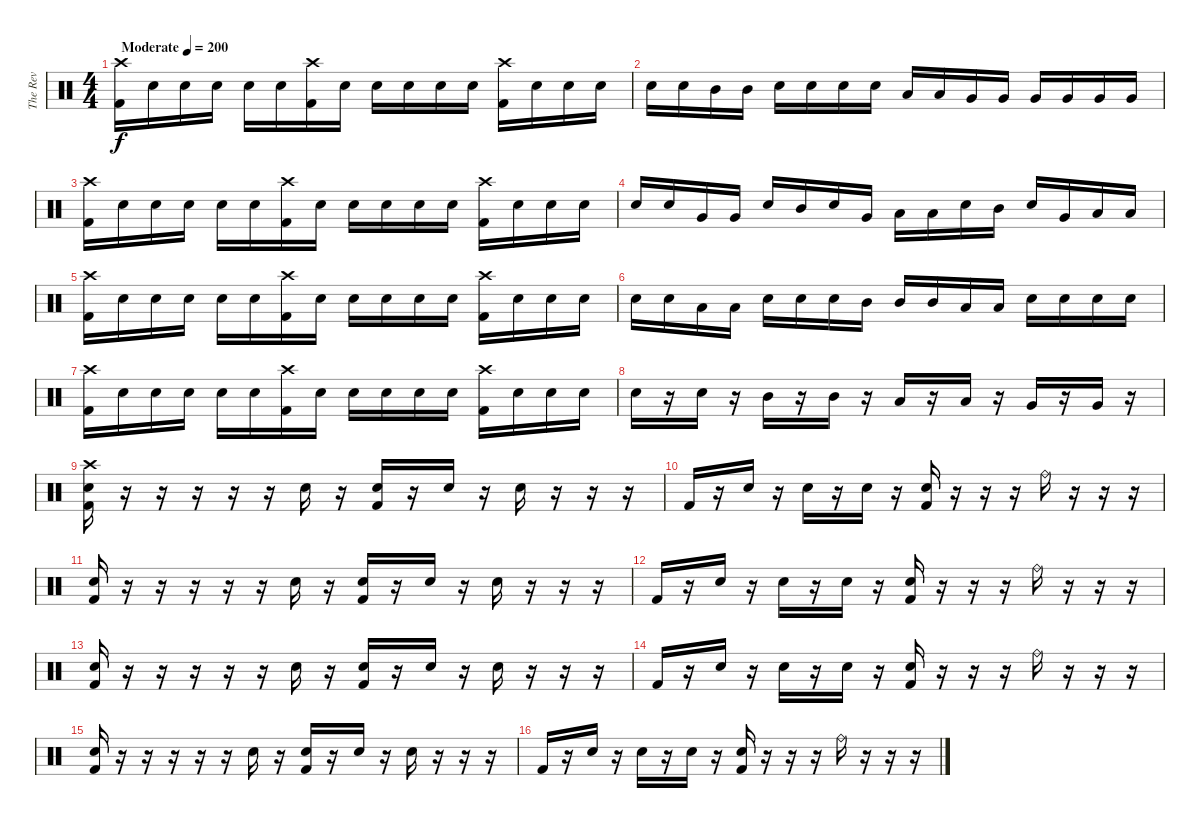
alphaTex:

\track ("The Rev" "The Rev") {instrument percussion}
\staff {score}
\articulation defaults
\ts (4 4)
\tempo (200 "Moderate")
\clef neutral
\ks c
("Crash high (hit)" "Kick (hit) 2").16{dy f} "Electric Snare (hit)".16 "Electric Snare (hit)".16 "Electric Snare (hit)".16 "Electric Snare (hit)".16 "Electric Snare (hit)".16 ("Crash high (hit)" "Kick (hit) 2").16 "Electric Snare (hit)".16 "Electric Snare (hit)".16 "Electric Snare (hit)".16 "Electric Snare (hit)".16 "Electric Snare (hit)".16 ("Crash high (hit)" "Kick (hit) 2").16 "Electric Snare (hit)".16 "Electric Snare (hit)".16 "Electric Snare (hit)".16 |
"Electric Snare (hit)".16 "Electric Snare (hit)".16 "Mid Tom (hit)".16 "Mid Tom (hit)".16 "Electric Snare (hit)".16 "Electric Snare (hit)".16 "Electric Snare (hit)".16 "Electric Snare (hit)".16 "Low Tom (hit)".16 "Low Tom (hit)".16 "Very Low Tom (hit)".16 "Very Low Tom (hit)".16 "Very Low Tom (hit)".16 "Very Low Tom (hit)".16 "Very Low Tom (hit)".16 "Very Low Tom (hit)".16 |
("Crash high (hit)" "Kick (hit) 2").16 "Electric Snare (hit)".16 "Electric Snare (hit)".16 "Electric Snare (hit)".16 "Electric Snare (hit)".16 "Electric Snare (hit)".16 ("Crash high (hit)" "Kick (hit) 2").16 "Electric Snare (hit)".16 "Electric Snare (hit)".16 "Electric Snare (hit)".16 "Electric Snare (hit)".16 "Electric Snare (hit)".16 ("Crash high (hit)" "Kick (hit) 2").16 "Electric Snare (hit)".16 "Electric Snare (hit)".16 "Electric Snare (hit)".16 |
"Electric Snare (hit)".16 "Electric Snare (hit)".16 "Very Low Tom (hit)".16 "Very Low Tom (hit)".16 "Electric Snare (hit)".16 "Mid Tom (hit)".16 "Electric Snare (hit)".16 "Very Low Tom (hit)".16 "Low Tom (hit)".16 "Low Tom (hit)".16 "Electric Snare (hit)".16 "Mid Tom (hit)".16 "Electric Snare (hit)".16 "Very Low Tom (hit)".16 "Low Tom (hit)".16 "Low Tom (hit)".16 |
("Crash high (hit)" "Kick (hit) 2").16 "Electric Snare (hit)".16 "Electric Snare (hit)".16 "Electric Snare (hit)".16 "Electric Snare (hit)".16 "Electric Snare (hit)".16 ("Crash high (hit)" "Kick (hit) 2").16 "Electric Snare (hit)".16 "Electric Snare (hit)".16 "Electric Snare (hit)".16 "Electric Snare (hit)".16 "Electric Snare (hit)".16 ("Crash high (hit)" "Kick (hit) 2").16 "Electric Snare (hit)".16 "Electric Snare (hit)".16 "Electric Snare (hit)".16 |
"Electric Snare (hit)".16 "Electric Snare (hit)".16 "Low Tom (hit)".16 "Low Tom (hit)".16 "Electric Snare (hit)".16 "Electric Snare (hit)".16 "Electric Snare (hit)".16 "Mid Tom (hit)".16 "Mid Tom (hit)".16 "Mid Tom (hit)".16 "Low Tom (hit)".16 "Low Tom (hit)".16 "Electric Snare (hit)".16 "Electric Snare (hit)".16 "Electric Snare (hit)".16 "Electric Snare (hit)".16 |
("Crash high (hit)" "Kick (hit) 2").16 "Electric Snare (hit)".16 "Electric Snare (hit)".16 "Electric Snare (hit)".16 "Electric Snare (hit)".16 "Electric Snare (hit)".16 ("Crash high (hit)" "Kick (hit) 2").16 "Electric Snare (hit)".16 "Electric Snare (hit)".16 "Electric Snare (hit)".16 "Electric Snare (hit)".16 "Electric Snare (hit)".16 ("Crash high (hit)" "Kick (hit) 2").16 "Electric Snare (hit)".16 "Electric Snare (hit)".16 "Electric Snare (hit)".16 |
"Electric Snare (hit)".16 r.16 "Electric Snare (hit)".16 r.16 "Mid Tom (hit)".16 r.16 "Mid Tom (hit)".16 r.16 "Low Tom (hit)".16 r.16 "Low Tom (hit)".16 r.16 "Very Low Tom (hit)".16 r.16 "Very Low Tom (hit)".16 r.16 |
("Crash high (hit)" "Electric Snare (hit)" "Kick (hit) 2").16 r.16 r.16 r.16 r.16 r.16 "Electric Snare (hit)".16 r.16 ("Electric Snare (hit)" "Kick (hit) 2").16 r.16 "Electric Snare (hit)".16 r.16 "Electric Snare (hit)".16 r.16 r.16 r.16 |
"Kick (hit) 2".16 r.16 "Electric Snare (hit)".16 r.16 "Electric Snare (hit)".16 r.16 "Electric Snare (hit)".16 r.16 ("Electric Snare (hit)" "Kick (hit) 2").16 r.16 r.16 r.16 "Ride (bell)".16 r.16 r.16 r.16 |
("Electric Snare (hit)" "Kick (hit) 2").16 r.16 r.16 r.16 r.16 r.16 "Electric Snare (hit)".16 r.16 ("Electric Snare (hit)" "Kick (hit) 2").16 r.16 "Electric Snare (hit)".16 r.16 "Electric Snare (hit)".16 r.16 r.16 r.16 |
"Kick (hit) 2".16 r.16 "Electric Snare (hit)".16 r.16 "Electric Snare (hit)".16 r.16 "Electric Snare (hit)".16 r.16 ("Electric Snare (hit)" "Kick (hit) 2").16 r.16 r.16 r.16 "Ride (bell)".16 r.16 r.16 r.16 |
("Electric Snare (hit)" "Kick (hit) 2").16 r.16 r.16 r.16 r.16 r.16 "Electric Snare (hit)".16 r.16 ("Electric Snare (hit)" "Kick (hit) 2").16 r.16 "Electric Snare (hit)".16 r.16 "Electric Snare (hit)".16 r.16 r.16 r.16 |
"Kick (hit) 2".16 r.16 "Electric Snare (hit)".16 r.16 "Electric Snare (hit)".16 r.16 "Electric Snare (hit)".16 r.16 ("Electric Snare (hit)" "Kick (hit) 2").16 r.16 r.16 r.16 "Ride (bell)".16 r.16 r.16 r.16 |
("Electric Snare (hit)" "Kick (hit) 2").16 r.16 r.16 r.16 r.16 r.16 "Electric Snare (hit)".16 r.16 ("Electric Snare (hit)" "Kick (hit) 2").16 r.16 "Electric Snare (hit)".16 r.16 "Electric Snare (hit)".16 r.16 r.16 r.16 |
"Kick (hit) 2".16 r.16 "Electric Snare (hit)".16 r.16 "Electric Snare (hit)".16 r.16 "Electric Snare (hit)".16 r.16 ("Electric Snare (hit)" "Kick (hit) 2").16 r.16 r.16 r.16 "Ride (bell)".16 r.16 r.16 r.16
